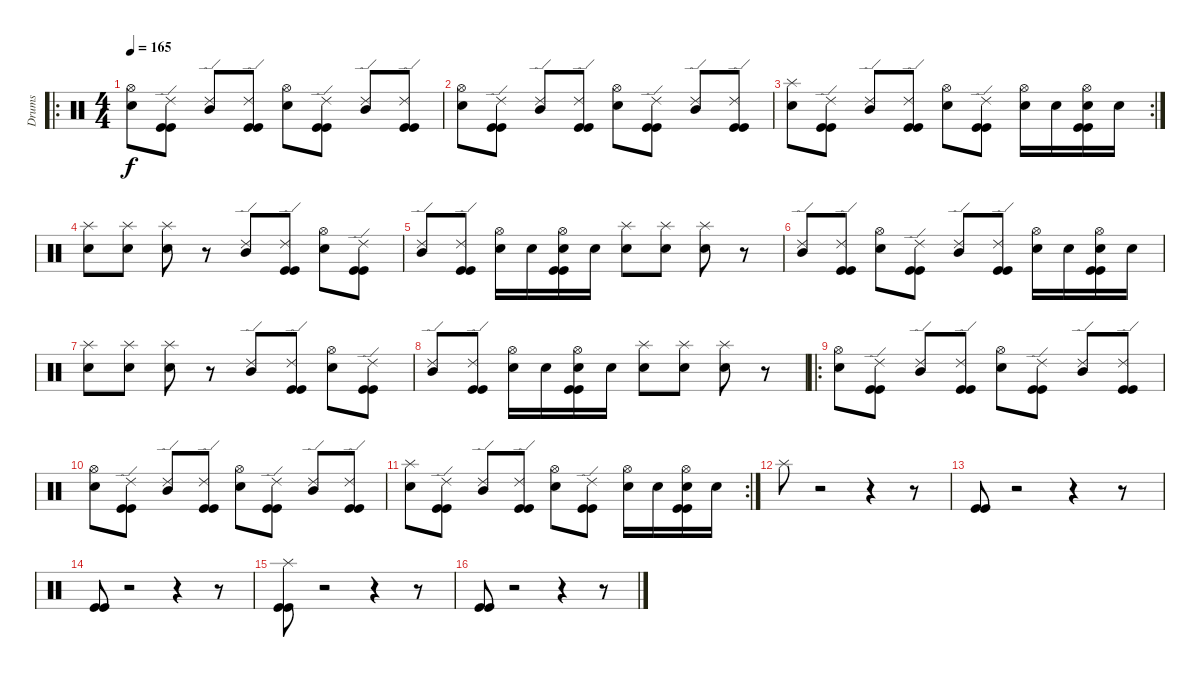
\track ("Drums" "Drums") {instrument percussion}
\staff {score}
\articulation defaults
\ro
\ts (4 4)
\tempo 165
\clef neutral
\ks c
("Hi-Hat (open)" "Snare (hit) 2").8{dy f} ("Ride (edge) 2" "Kick (hit)" "Kick (hit)").8 ("Ride (edge) 2" "Mid Tom (hit)").8 ("Ride (edge) 2" "Kick (hit)" "Kick (hit)").8 ("Hi-Hat (open)" "Snare (hit) 2").8 ("Ride (edge) 2" "Kick (hit)" "Kick (hit)").8 ("Ride (edge) 2" "Mid Tom (hit)").8 ("Ride (edge) 2" "Kick (hit)" "Kick (hit)").8 |
("Hi-Hat (open)" "Snare (hit) 2").8 ("Ride (edge) 2" "Kick (hit)" "Kick (hit)").8 ("Ride (edge) 2" "Mid Tom (hit)").8 ("Ride (edge) 2" "Kick (hit)" "Kick (hit)").8 ("Hi-Hat (open)" "Snare (hit) 2").8 ("Ride (edge) 2" "Kick (hit)" "Kick (hit)").8 ("Ride (edge) 2" "Mid Tom (hit)").8 ("Ride (edge) 2" "Kick (hit)" "Kick (hit)").8 |
\rc 2
("Splash (hit)" "Snare (hit) 2").8 ("Ride (edge) 2" "Kick (hit)" "Kick (hit)").8 ("Ride (edge) 2" "Mid Tom (hit)").8 ("Ride (edge) 2" "Kick (hit)" "Kick (hit)").8 ("Hi-Hat (open)" "Snare (hit) 2").8 ("Ride (edge) 2" "Kick (hit)" "Kick (hit)").8 ("Hi-Hat (open)" "Snare (hit) 2").16 "Snare (hit) 2".16 ("Hi-Hat (open)" "Snare (hit) 2" "Kick (hit)" "Kick (hit)").16 "Snare (hit) 2".16 |
("Splash (hit)" "Snare (hit) 2").8 ("Splash (hit)" "Snare (hit) 2").8 ("Splash (hit)" "Snare (hit) 2").8 r.8 ("Ride (edge) 2" "Mid Tom (hit)").8 ("Ride (edge) 2" "Kick (hit)" "Kick (hit)").8 ("Hi-Hat (open)" "Snare (hit) 2").8 ("Ride (edge) 2" "Kick (hit)" "Kick (hit)").8 |
("Ride (edge) 2" "Mid Tom (hit)").8 ("Ride (edge) 2" "Kick (hit)" "Kick (hit)").8 ("Hi-Hat (open)" "Snare (hit) 2").16 "Snare (hit) 2".16 ("Hi-Hat (open)" "Snare (hit) 2" "Kick (hit)" "Kick (hit)").16 "Snare (hit) 2".16 ("Splash (hit)" "Snare (hit) 2").8 ("Splash (hit)" "Snare (hit) 2").8 ("Splash (hit)" "Snare (hit) 2").8 r.8 |
("Ride (edge) 2" "Mid Tom (hit)").8 ("Ride (edge) 2" "Kick (hit)" "Kick (hit)").8 ("Hi-Hat (open)" "Snare (hit) 2").8 ("Ride (edge) 2" "Kick (hit)" "Kick (hit)").8 ("Ride (edge) 2" "Mid Tom (hit)").8 ("Ride (edge) 2" "Kick (hit)" "Kick (hit)").8 ("Hi-Hat (open)" "Snare (hit) 2").16 "Snare (hit) 2".16 ("Hi-Hat (open)" "Snare (hit) 2" "Kick (hit)" "Kick (hit)").16 "Snare (hit) 2".16 |
("Splash (hit)" "Snare (hit) 2").8 ("Splash (hit)" "Snare (hit) 2").8 ("Splash (hit)" "Snare (hit) 2").8 r.8 ("Ride (edge) 2" "Mid Tom (hit)").8 ("Ride (edge) 2" "Kick (hit)" "Kick (hit)").8 ("Hi-Hat (open)" "Snare (hit) 2").8 ("Ride (edge) 2" "Kick (hit)" "Kick (hit)").8 |
("Ride (edge) 2" "Mid Tom (hit)").8 ("Ride (edge) 2" "Kick (hit)" "Kick (hit)").8 ("Hi-Hat (open)" "Snare (hit) 2").16 "Snare (hit) 2".16 ("Hi-Hat (open)" "Snare (hit) 2" "Kick (hit)" "Kick (hit)").16 "Snare (hit) 2".16 ("Splash (hit)" "Snare (hit) 2").8 ("Splash (hit)" "Snare (hit) 2").8 ("Splash (hit)" "Snare (hit) 2").8 r.8 |
\ro
("Hi-Hat (open)" "Snare (hit) 2").8 ("Ride (edge) 2" "Kick (hit)" "Kick (hit)").8 ("Ride (edge) 2" "Mid Tom (hit)").8 ("Ride (edge) 2" "Kick (hit)" "Kick (hit)").8 ("Hi-Hat (open)" "Snare (hit) 2").8 ("Ride (edge) 2" "Kick (hit)" "Kick (hit)").8 ("Ride (edge) 2" "Mid Tom (hit)").8 ("Ride (edge) 2" "Kick (hit)" "Kick (hit)").8 |
("Hi-Hat (open)" "Snare (hit) 2").8 ("Ride (edge) 2" "Kick (hit)" "Kick (hit)").8 ("Ride (edge) 2" "Mid Tom (hit)").8 ("Ride (edge) 2" "Kick (hit)" "Kick (hit)").8 ("Hi-Hat (open)" "Snare (hit) 2").8 ("Ride (edge) 2" "Kick (hit)" "Kick (hit)").8 ("Ride (edge) 2" "Mid Tom (hit)").8 ("Ride (edge) 2" "Kick (hit)" "Kick (hit)").8 |
\rc 2
("Splash (hit)" "Snare (hit) 2").8 ("Ride (edge) 2" "Kick (hit)" "Kick (hit)").8 ("Ride (edge) 2" "Mid Tom (hit)").8 ("Ride (edge) 2" "Kick (hit)" "Kick (hit)").8 ("Hi-Hat (open)" "Snare (hit) 2").8 ("Ride (edge) 2" "Kick (hit)" "Kick (hit)").8 ("Hi-Hat (open)" "Snare (hit) 2").16 "Snare (hit) 2".16 ("Hi-Hat (open)" "Snare (hit) 2" "Kick (hit)" "Kick (hit)").16 "Snare (hit) 2".16 |
"Splash (hit)".8 r.2 r.4 r.8 |
("Kick (hit)" "Kick (hit)").8 r.2 r.4 r.8 |
("Kick (hit)" "Kick (hit)").8 r.2 r.4 r.8 |
("Splash (hit)" "Kick (hit)" "Kick (hit)").8 r.2 r.4 r.8 |
("Kick (hit)" "Kick (hit)").8 r.2 r.4 r.8
